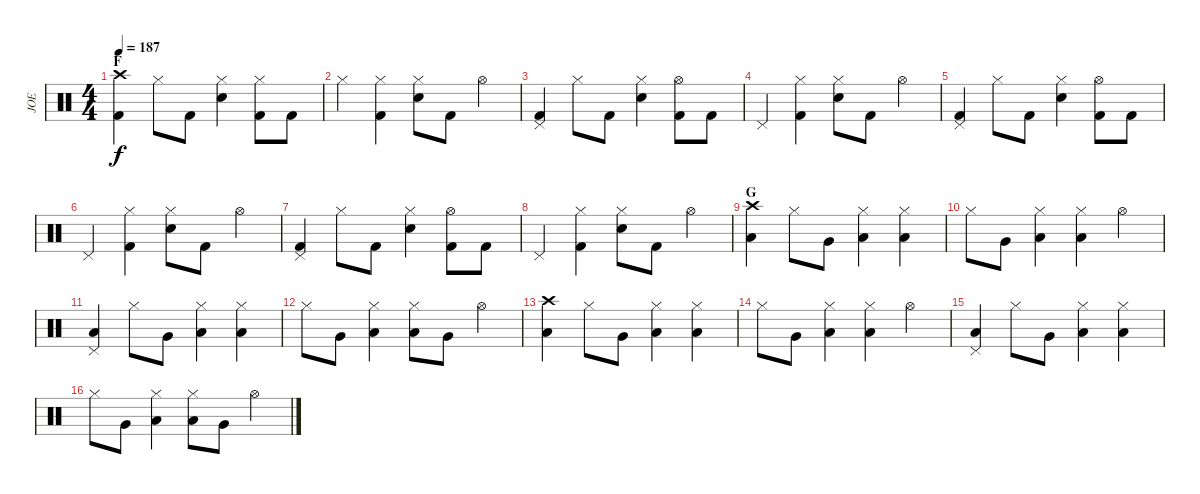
\track ("JOE" "JOE") {instrument percussion}
\staff {score}
\articulation defaults
\ts (4 4)
\section ("" "F")
\tempo 187
\clef neutral
\ks c
("Crash high (hit)" "Kick (hit) 2").4{dy f} "Hi-Hat (closed)".8 "Kick (hit) 2".8 ("Hi-Hat (closed)" "Snare (hit) 2").4 ("Hi-Hat (closed)" "Kick (hit) 2").8 "Kick (hit) 2".8 |
"Hi-Hat (closed)".4 ("Hi-Hat (closed)" "Kick (hit) 2").4 ("Hi-Hat (closed)" "Snare (hit) 2").8 "Kick (hit) 2".8 "Hi-Hat (open)".4 |
("Pedal Hi-Hat (hit)" "Kick (hit) 2").4 "Hi-Hat (closed)".8 "Kick (hit) 2".8 ("Hi-Hat (closed)" "Snare (hit) 2").4 ("Hi-Hat (open)" "Kick (hit) 2").8 "Kick (hit) 2".8 |
"Pedal Hi-Hat (hit)".4 ("Hi-Hat (closed)" "Kick (hit) 2").4 ("Hi-Hat (closed)" "Snare (hit) 2").8 "Kick (hit) 2".8 "Hi-Hat (open)".4 |
("Pedal Hi-Hat (hit)" "Kick (hit) 2").4 "Hi-Hat (closed)".8 "Kick (hit) 2".8 ("Hi-Hat (closed)" "Snare (hit) 2").4 ("Hi-Hat (open)" "Kick (hit) 2").8 "Kick (hit) 2".8 |
"Pedal Hi-Hat (hit)".4 ("Hi-Hat (closed)" "Kick (hit) 2").4 ("Hi-Hat (closed)" "Snare (hit) 2").8 "Kick (hit) 2".8 "Hi-Hat (open)".4 |
("Pedal Hi-Hat (hit)" "Kick (hit) 2").4 "Hi-Hat (closed)".8 "Kick (hit) 2".8 ("Hi-Hat (closed)" "Snare (hit) 2").4 ("Hi-Hat (open)" "Kick (hit) 2").8 "Kick (hit) 2".8 |
"Pedal Hi-Hat (hit)".4 ("Hi-Hat (closed)" "Kick (hit) 2").4 ("Hi-Hat (closed)" "Snare (hit) 2").8 "Kick (hit) 2".8 "Hi-Hat (open)".4 |
\section ("" "G")
("Crash high (hit)" "Low Floor Tom (hit)").4 "Hi-Hat (closed)".8 "Very Low Tom (hit)".8 ("Hi-Hat (closed)" "Low Floor Tom (hit)").4 ("Hi-Hat (closed)" "Low Floor Tom (hit)").4 |
"Hi-Hat (closed)".8 "Very Low Tom (hit)".8 ("Hi-Hat (closed)" "Low Floor Tom (hit)").4 ("Hi-Hat (closed)" "Low Floor Tom (hit)").4 "Hi-Hat (open)".4 |
("Pedal Hi-Hat (hit)" "Low Floor Tom (hit)").4 "Hi-Hat (closed)".8 "Very Low Tom (hit)".8 ("Hi-Hat (closed)" "Low Floor Tom (hit)").4 ("Hi-Hat (closed)" "Low Floor Tom (hit)").4 |
"Hi-Hat (closed)".8 "Very Low Tom (hit)".8 ("Hi-Hat (closed)" "Low Floor Tom (hit)").4 ("Hi-Hat (closed)" "Low Floor Tom (hit)").8 "Very Low Tom (hit)".8 "Hi-Hat (open)".4 |
("Crash high (hit)" "Low Floor Tom (hit)").4 "Hi-Hat (closed)".8 "Very Low Tom (hit)".8 ("Hi-Hat (closed)" "Low Floor Tom (hit)").4 ("Hi-Hat (closed)" "Low Floor Tom (hit)").4 |
"Hi-Hat (closed)".8 "Very Low Tom (hit)".8 ("Hi-Hat (closed)" "Low Floor Tom (hit)").4 ("Hi-Hat (closed)" "Low Floor Tom (hit)").4 "Hi-Hat (open)".4 |
("Pedal Hi-Hat (hit)" "Low Floor Tom (hit)").4 "Hi-Hat (closed)".8 "Very Low Tom (hit)".8 ("Hi-Hat (closed)" "Low Floor Tom (hit)").4 ("Hi-Hat (closed)" "Low Floor Tom (hit)").4 |
"Hi-Hat (closed)".8 "Very Low Tom (hit)".8 ("Hi-Hat (closed)" "Low Floor Tom (hit)").4 ("Hi-Hat (closed)" "Low Floor Tom (hit)").8 "Very Low Tom (hit)".8 "Hi-Hat (open)".4
